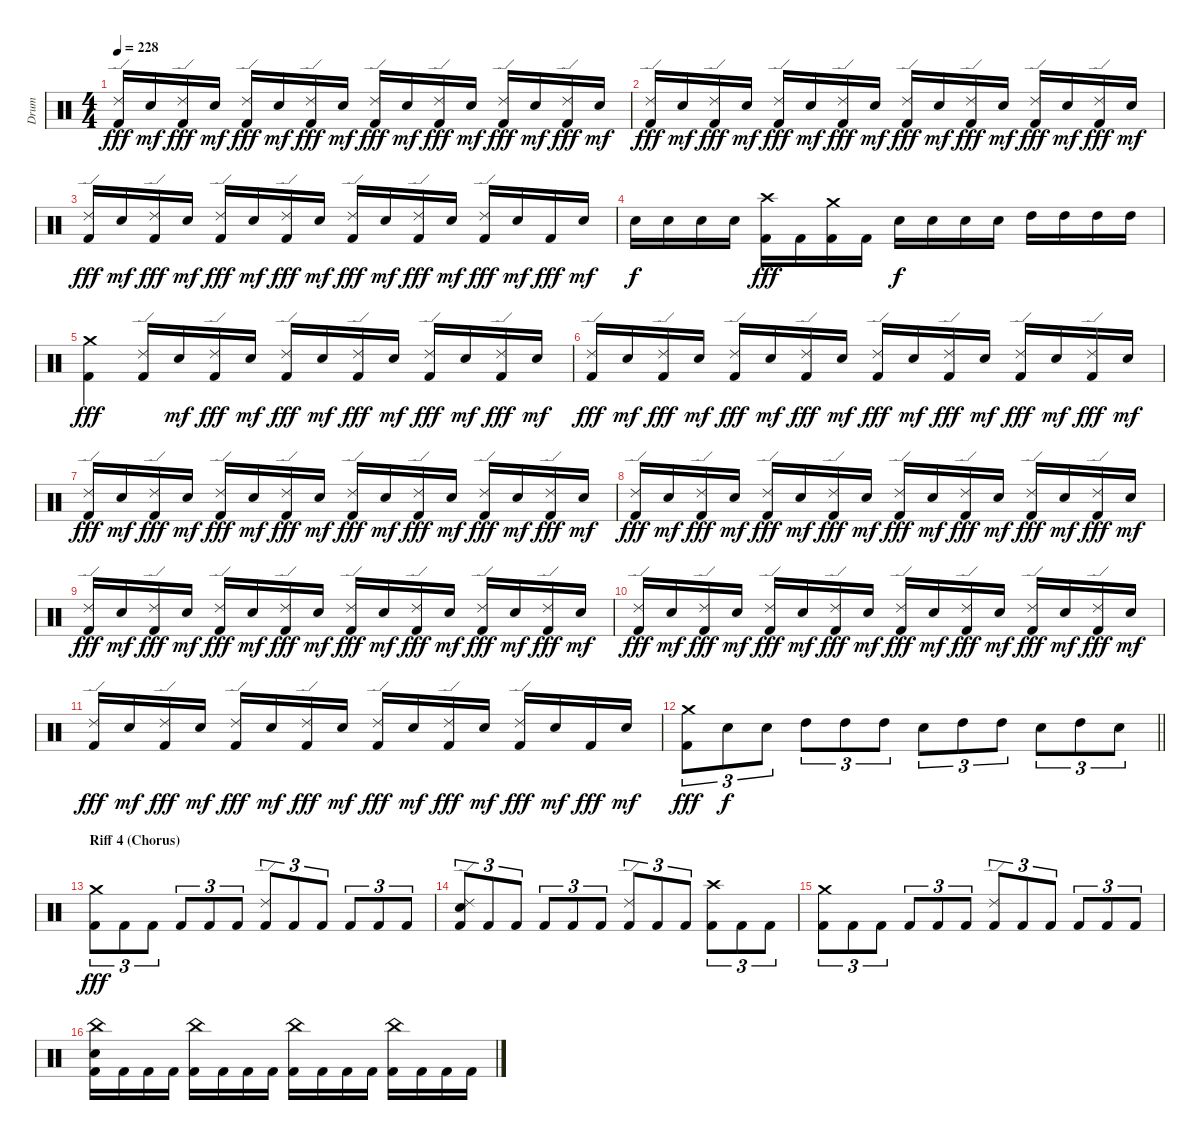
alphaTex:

\track ("Drum" "Drum") {instrument percussion}
\staff {score}
\articulation defaults
\ts (4 4)
\tempo 228
\clef neutral
\ks c
("Ride (edge) 2" "Kick (hit) 2").16{dy fff} "Snare (hit) 2".16{dy mf} ("Ride (edge) 2" "Kick (hit) 2").16{dy fff} "Snare (hit) 2".16{dy mf} ("Ride (edge) 2" "Kick (hit) 2").16{dy fff} "Snare (hit) 2".16{dy mf} ("Ride (edge) 2" "Kick (hit) 2").16{dy fff} "Snare (hit) 2".16{dy mf} ("Ride (edge) 2" "Kick (hit) 2").16{dy fff} "Snare (hit) 2".16{dy mf} ("Ride (edge) 2" "Kick (hit) 2").16{dy fff} "Snare (hit) 2".16{dy mf} ("Ride (edge) 2" "Kick (hit) 2").16{dy fff} "Snare (hit) 2".16{dy mf} ("Ride (edge) 2" "Kick (hit) 2").16{dy fff} "Snare (hit) 2".16{dy mf} |
("Ride (edge) 2" "Kick (hit) 2").16{dy fff} "Snare (hit) 2".16{dy mf} ("Ride (edge) 2" "Kick (hit) 2").16{dy fff} "Snare (hit) 2".16{dy mf} ("Ride (edge) 2" "Kick (hit) 2").16{dy fff} "Snare (hit) 2".16{dy mf} ("Ride (edge) 2" "Kick (hit) 2").16{dy fff} "Snare (hit) 2".16{dy mf} ("Ride (edge) 2" "Kick (hit) 2").16{dy fff} "Snare (hit) 2".16{dy mf} ("Ride (edge) 2" "Kick (hit) 2").16{dy fff} "Snare (hit) 2".16{dy mf} ("Ride (edge) 2" "Kick (hit) 2").16{dy fff} "Snare (hit) 2".16{dy mf} ("Ride (edge) 2" "Kick (hit) 2").16{dy fff} "Snare (hit) 2".16{dy mf} |
("Ride (edge) 2" "Kick (hit) 2").16{dy fff} "Snare (hit) 2".16{dy mf} ("Ride (edge) 2" "Kick (hit) 2").16{dy fff} "Snare (hit) 2".16{dy mf} ("Ride (edge) 2" "Kick (hit) 2").16{dy fff} "Snare (hit) 2".16{dy mf} ("Ride (edge) 2" "Kick (hit) 2").16{dy fff} "Snare (hit) 2".16{dy mf} ("Ride (edge) 2" "Kick (hit) 2").16{dy fff} "Snare (hit) 2".16{dy mf} ("Ride (edge) 2" "Kick (hit) 2").16{dy fff} "Snare (hit) 2".16{dy mf} ("Ride (edge) 2" "Kick (hit) 2").16{dy fff} "Snare (hit) 2".16{dy mf} "Kick (hit) 2".16{dy fff} "Snare (hit) 2".16{dy mf} |
"Snare (hit) 2".16{dy f} "Snare (hit) 2".16 "Snare (hit) 2".16 "Snare (hit) 2".16 ("Crash high (hit)" "Kick (hit) 2").16{dy fff} "Kick (hit) 2".16 ("Crash medium (hit)" "Kick (hit) 2").16 "Kick (hit) 2".16 "Snare (hit) 2".16{dy f} "Snare (hit) 2".16 "Snare (hit) 2".16 "Snare (hit) 2".16 "High Tom (hit)".16 "High Tom (hit)".16 "High Tom (hit)".16 "High Tom (hit)".16 |
("Crash medium (hit)" "Kick (hit) 2").4{dy fff} ("Ride (edge) 2" "Kick (hit) 2").16 "Snare (hit) 2".16{dy mf} ("Ride (edge) 2" "Kick (hit) 2").16{dy fff} "Snare (hit) 2".16{dy mf} ("Ride (edge) 2" "Kick (hit) 2").16{dy fff} "Snare (hit) 2".16{dy mf} ("Ride (edge) 2" "Kick (hit) 2").16{dy fff} "Snare (hit) 2".16{dy mf} ("Ride (edge) 2" "Kick (hit) 2").16{dy fff} "Snare (hit) 2".16{dy mf} ("Ride (edge) 2" "Kick (hit) 2").16{dy fff} "Snare (hit) 2".16{dy mf} |
("Ride (edge) 2" "Kick (hit) 2").16{dy fff} "Snare (hit) 2".16{dy mf} ("Ride (edge) 2" "Kick (hit) 2").16{dy fff} "Snare (hit) 2".16{dy mf} ("Ride (edge) 2" "Kick (hit) 2").16{dy fff} "Snare (hit) 2".16{dy mf} ("Ride (edge) 2" "Kick (hit) 2").16{dy fff} "Snare (hit) 2".16{dy mf} ("Ride (edge) 2" "Kick (hit) 2").16{dy fff} "Snare (hit) 2".16{dy mf} ("Ride (edge) 2" "Kick (hit) 2").16{dy fff} "Snare (hit) 2".16{dy mf} ("Ride (edge) 2" "Kick (hit) 2").16{dy fff} "Snare (hit) 2".16{dy mf} ("Ride (edge) 2" "Kick (hit) 2").16{dy fff} "Snare (hit) 2".16{dy mf} |
("Ride (edge) 2" "Kick (hit) 2").16{dy fff} "Snare (hit) 2".16{dy mf} ("Ride (edge) 2" "Kick (hit) 2").16{dy fff} "Snare (hit) 2".16{dy mf} ("Ride (edge) 2" "Kick (hit) 2").16{dy fff} "Snare (hit) 2".16{dy mf} ("Ride (edge) 2" "Kick (hit) 2").16{dy fff} "Snare (hit) 2".16{dy mf} ("Ride (edge) 2" "Kick (hit) 2").16{dy fff} "Snare (hit) 2".16{dy mf} ("Ride (edge) 2" "Kick (hit) 2").16{dy fff} "Snare (hit) 2".16{dy mf} ("Ride (edge) 2" "Kick (hit) 2").16{dy fff} "Snare (hit) 2".16{dy mf} ("Ride (edge) 2" "Kick (hit) 2").16{dy fff} "Snare (hit) 2".16{dy mf} |
("Ride (edge) 2" "Kick (hit) 2").16{dy fff} "Snare (hit) 2".16{dy mf} ("Ride (edge) 2" "Kick (hit) 2").16{dy fff} "Snare (hit) 2".16{dy mf} ("Ride (edge) 2" "Kick (hit) 2").16{dy fff} "Snare (hit) 2".16{dy mf} ("Ride (edge) 2" "Kick (hit) 2").16{dy fff} "Snare (hit) 2".16{dy mf} ("Ride (edge) 2" "Kick (hit) 2").16{dy fff} "Snare (hit) 2".16{dy mf} ("Ride (edge) 2" "Kick (hit) 2").16{dy fff} "Snare (hit) 2".16{dy mf} ("Ride (edge) 2" "Kick (hit) 2").16{dy fff} "Snare (hit) 2".16{dy mf} ("Ride (edge) 2" "Kick (hit) 2").16{dy fff} "Snare (hit) 2".16{dy mf} |
("Ride (edge) 2" "Kick (hit) 2").16{dy fff} "Snare (hit) 2".16{dy mf} ("Ride (edge) 2" "Kick (hit) 2").16{dy fff} "Snare (hit) 2".16{dy mf} ("Ride (edge) 2" "Kick (hit) 2").16{dy fff} "Snare (hit) 2".16{dy mf} ("Ride (edge) 2" "Kick (hit) 2").16{dy fff} "Snare (hit) 2".16{dy mf} ("Ride (edge) 2" "Kick (hit) 2").16{dy fff} "Snare (hit) 2".16{dy mf} ("Ride (edge) 2" "Kick (hit) 2").16{dy fff} "Snare (hit) 2".16{dy mf} ("Ride (edge) 2" "Kick (hit) 2").16{dy fff} "Snare (hit) 2".16{dy mf} ("Ride (edge) 2" "Kick (hit) 2").16{dy fff} "Snare (hit) 2".16{dy mf} |
("Ride (edge) 2" "Kick (hit) 2").16{dy fff} "Snare (hit) 2".16{dy mf} ("Ride (edge) 2" "Kick (hit) 2").16{dy fff} "Snare (hit) 2".16{dy mf} ("Ride (edge) 2" "Kick (hit) 2").16{dy fff} "Snare (hit) 2".16{dy mf} ("Ride (edge) 2" "Kick (hit) 2").16{dy fff} "Snare (hit) 2".16{dy mf} ("Ride (edge) 2" "Kick (hit) 2").16{dy fff} "Snare (hit) 2".16{dy mf} ("Ride (edge) 2" "Kick (hit) 2").16{dy fff} "Snare (hit) 2".16{dy mf} ("Ride (edge) 2" "Kick (hit) 2").16{dy fff} "Snare (hit) 2".16{dy mf} ("Ride (edge) 2" "Kick (hit) 2").16{dy fff} "Snare (hit) 2".16{dy mf} |
("Ride (edge) 2" "Kick (hit) 2").16{dy fff} "Snare (hit) 2".16{dy mf} ("Ride (edge) 2" "Kick (hit) 2").16{dy fff} "Snare (hit) 2".16{dy mf} ("Ride (edge) 2" "Kick (hit) 2").16{dy fff} "Snare (hit) 2".16{dy mf} ("Ride (edge) 2" "Kick (hit) 2").16{dy fff} "Snare (hit) 2".16{dy mf} ("Ride (edge) 2" "Kick (hit) 2").16{dy fff} "Snare (hit) 2".16{dy mf} ("Ride (edge) 2" "Kick (hit) 2").16{dy fff} "Snare (hit) 2".16{dy mf} ("Ride (edge) 2" "Kick (hit) 2").16{dy fff} "Snare (hit) 2".16{dy mf} "Kick (hit) 2".16{dy fff} "Snare (hit) 2".16{dy mf} |
\barLineRight lightlight
("Crash medium (hit)" "Kick (hit) 2").8{tu (3 2) dy fff} "Snare (hit) 2".8{tu (3 2) dy f} "Snare (hit) 2".8{tu (3 2)} "High Tom (hit)".8{tu (3 2)} "High Tom (hit)".8{tu (3 2)} "High Tom (hit)".8{tu (3 2)} "Snare (hit) 2".8{tu (3 2)} "High Tom (hit)".8{tu (3 2)} "High Tom (hit)".8{tu (3 2)} "Snare (hit) 2".8{tu (3 2)} "High Tom (hit)".8{tu (3 2)} "Snare (hit) 2".8{tu (3 2)} |
\section ("" "Riff 4 (Chorus)")
("Crash medium (hit)" "Kick (hit) 2").8{tu (3 2) dy fff} "Kick (hit) 2".8{tu (3 2)} "Kick (hit) 2".8{tu (3 2)} "Kick (hit) 2".8{tu (3 2)} "Kick (hit) 2".8{tu (3 2)} "Kick (hit) 2".8{tu (3 2)} ("Ride (edge) 2" "Kick (hit) 2").8{tu (3 2)} "Kick (hit) 2".8{tu (3 2)} "Kick (hit) 2".8{tu (3 2)} "Kick (hit) 2".8{tu (3 2)} "Kick (hit) 2".8{tu (3 2)} "Kick (hit) 2".8{tu (3 2)} |
("Ride (edge) 2" "Snare (hit) 2" "Kick (hit) 2").8{tu (3 2)} "Kick (hit) 2".8{tu (3 2)} "Kick (hit) 2".8{tu (3 2)} "Kick (hit) 2".8{tu (3 2)} "Kick (hit) 2".8{tu (3 2)} "Kick (hit) 2".8{tu (3 2)} ("Ride (edge) 2" "Kick (hit) 2").8{tu (3 2)} "Kick (hit) 2".8{tu (3 2)} "Kick (hit) 2".8{tu (3 2)} ("Crash high (hit)" "Kick (hit) 2").8{tu (3 2)} "Kick (hit) 2".8{tu (3 2)} "Kick (hit) 2".8{tu (3 2)} |
("Crash medium (hit)" "Kick (hit) 2").8{tu (3 2)} "Kick (hit) 2".8{tu (3 2)} "Kick (hit) 2".8{tu (3 2)} "Kick (hit) 2".8{tu (3 2)} "Kick (hit) 2".8{tu (3 2)} "Kick (hit) 2".8{tu (3 2)} ("Ride (edge) 2" "Kick (hit) 2").8{tu (3 2)} "Kick (hit) 2".8{tu (3 2)} "Kick (hit) 2".8{tu (3 2)} "Kick (hit) 2".8{tu (3 2)} "Kick (hit) 2".8{tu (3 2)} "Kick (hit) 2".8{tu (3 2)} |
("China (hit)" "Snare (hit) 2" "Kick (hit) 2").16 "Kick (hit) 2".16 "Kick (hit) 2".16 "Kick (hit) 2".16 ("China (hit)" "Kick (hit) 2").16 "Kick (hit) 2".16 "Kick (hit) 2".16 "Kick (hit) 2".16 ("China (hit)" "Kick (hit) 2").16 "Kick (hit) 2".16 "Kick (hit) 2".16 "Kick (hit) 2".16 ("China (hit)" "Kick (hit) 2").16 "Kick (hit) 2".16 "Kick (hit) 2".16 "Kick (hit) 2".16
